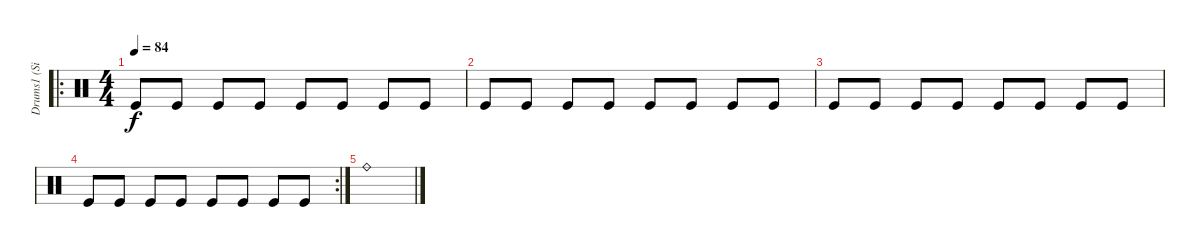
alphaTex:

\track ("Drums1 (Silas)" "Drums1 (Si") {instrument percussion}
\staff {score}
\articulation defaults
\ro
\ts (4 4)
\tempo 84
\clef neutral
\ks c "Kick (hit)".8{dy f} "Kick (hit)".8 "Kick (hit)".8 "Kick (hit)".8 "Kick (hit)".8 "Kick (hit)".8 "Kick (hit)".8 "Kick (hit)".8
|
"Kick (hit)".8 "Kick (hit)".8 "Kick (hit)".8 "Kick (hit)".8 "Kick (hit)".8 "Kick (hit)".8 "Kick (hit)".8 "Kick (hit)".8 |
"Kick (hit)".8 "Kick (hit)".8 "Kick (hit)".8 "Kick (hit)".8 "Kick (hit)".8 "Kick (hit)".8 "Kick (hit)".8 "Kick (hit)".8 |
\rc 2 "Kick (hit)".8 "Kick (hit)".8 "Kick (hit)".8 "Kick (hit)".8 "Kick (hit)".8 "Kick (hit)".8 "Kick (hit)".8 "Kick (hit)".8
|
"Ride (bell)".1
